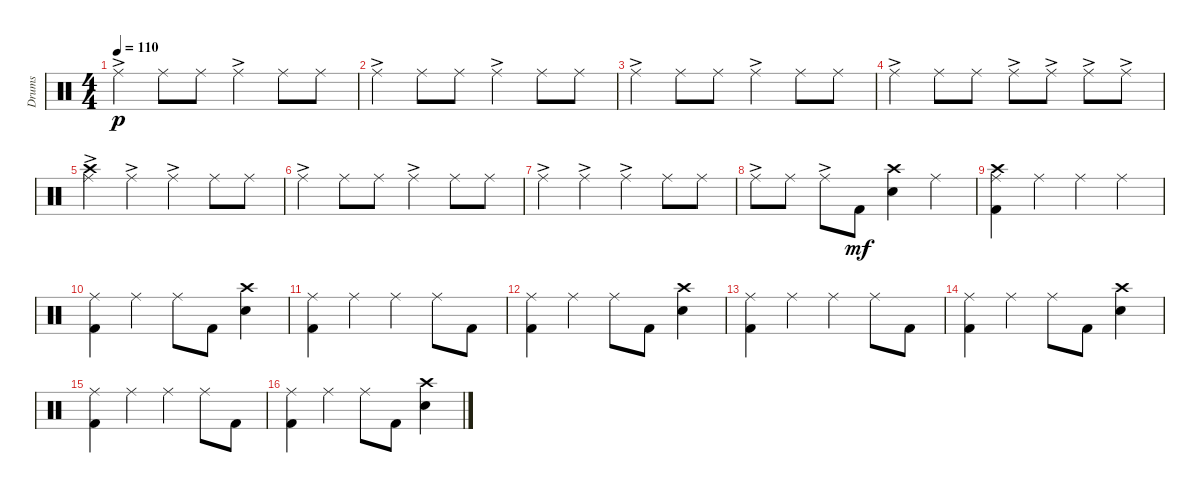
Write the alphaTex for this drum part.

\track ("Drums" "Drums") {instrument percussion}
\staff {score}
\articulation defaults
\ts (4 4)
\tempo 110
\clef neutral
\ks c "Ride (middle)"{ac}.4{dy p} "Ride (middle)".8 "Ride (middle)".8 "Ride (middle)"{ac}.4 "Ride (middle)".8 "Ride (middle)".8
|
"Ride (middle)"{ac}.4 "Ride (middle)".8 "Ride (middle)".8 "Ride (middle)"{ac}.4 "Ride (middle)".8 "Ride (middle)".8 |
"Ride (middle)"{ac}.4 "Ride (middle)".8 "Ride (middle)".8 "Ride (middle)"{ac}.4 "Ride (middle)".8 "Ride (middle)".8 |
"Ride (middle)"{ac}.4 "Ride (middle)".8 "Ride (middle)".8 "Ride (middle)"{ac}.8 "Ride (middle)"{ac}.8 "Ride (middle)"{ac}.8 "Ride (middle)"{ac}.8 |
("Crash high (hit)" "Ride (middle)"{ac}).4 "Ride (middle)"{ac}.4 "Ride (middle)"{ac}.4 "Ride (middle)".8 "Ride (middle)".8 |
"Ride (middle)"{ac}.4 "Ride (middle)".8 "Ride (middle)".8 "Ride (middle)"{ac}.4 "Ride (middle)".8 "Ride (middle)".8 |
"Ride (middle)"{ac}.4 "Ride (middle)"{ac}.4 "Ride (middle)"{ac}.4 "Ride (middle)".8 "Ride (middle)".8 |
"Ride (middle)"{ac}.8 "Ride (middle)".8 "Ride (middle)"{ac}.8 "Kick (hit) 2".8{dy mf} ("Crash high (hit)" "Electric Snare (hit)").4 "Ride (middle)".4 |
("Crash high (hit)" "Ride (middle)" "Kick (hit) 2").4 "Ride (middle)".4 "Ride (middle)".4 "Ride (middle)".4 |
("Ride (middle)" "Kick (hit) 2").4 "Ride (middle)".4 "Ride (middle)".8 "Kick (hit) 2".8 ("Crash high (hit)" "Electric Snare (hit)").4 |
("Ride (middle)" "Kick (hit) 2").4 "Ride (middle)".4 "Ride (middle)".4 "Ride (middle)".8 "Kick (hit) 2".8 |
("Ride (middle)" "Kick (hit) 2").4 "Ride (middle)".4 "Ride (middle)".8 "Kick (hit) 2".8 ("Crash high (hit)" "Electric Snare (hit)").4 |
("Ride (middle)" "Kick (hit) 2").4 "Ride (middle)".4 "Ride (middle)".4 "Ride (middle)".8 "Kick (hit) 2".8 |
("Ride (middle)" "Kick (hit) 2").4 "Ride (middle)".4 "Ride (middle)".8 "Kick (hit) 2".8 ("Crash high (hit)" "Electric Snare (hit)").4 |
("Ride (middle)" "Kick (hit) 2").4 "Ride (middle)".4 "Ride (middle)".4 "Ride (middle)".8 "Kick (hit) 2".8 |
("Ride (middle)" "Kick (hit) 2").4 "Ride (middle)".4 "Ride (middle)".8 "Kick (hit) 2".8 ("Crash high (hit)" "Electric Snare (hit)").4
